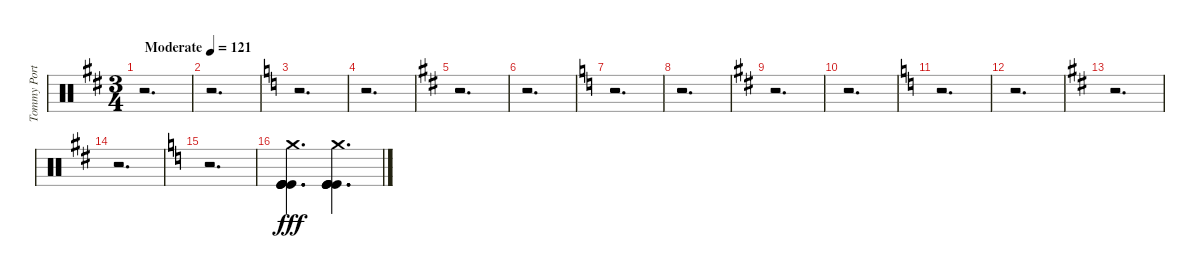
\track ("Tommy Portimo (Drums)" "Tommy Port") {instrument percussion}
\staff {score}
\articulation defaults
\ts (3 4)
\tempo (121 "Moderate")
\clef neutral
\ks d
r.2{d dy fff} |
r.2{d} |
\ks c
r.2{d} |
r.2{d} |
\ks d
r.2{d} |
r.2{d} |
\ks c
r.2{d} |
r.2{d} |
\ks d
r.2{d} |
r.2{d} |
\ks c
r.2{d} |
r.2{d} |
\ks d
r.2{d} |
r.2{d} |
\ks c
r.2{d} |
("Crash medium (hit)" "Kick (hit)" "Kick (hit)" "Kick (hit)" "Kick (hit)").4{d} ("Crash medium (hit)" "Kick (hit)" "Kick (hit)" "Kick (hit)" "Kick (hit)").4{d}
